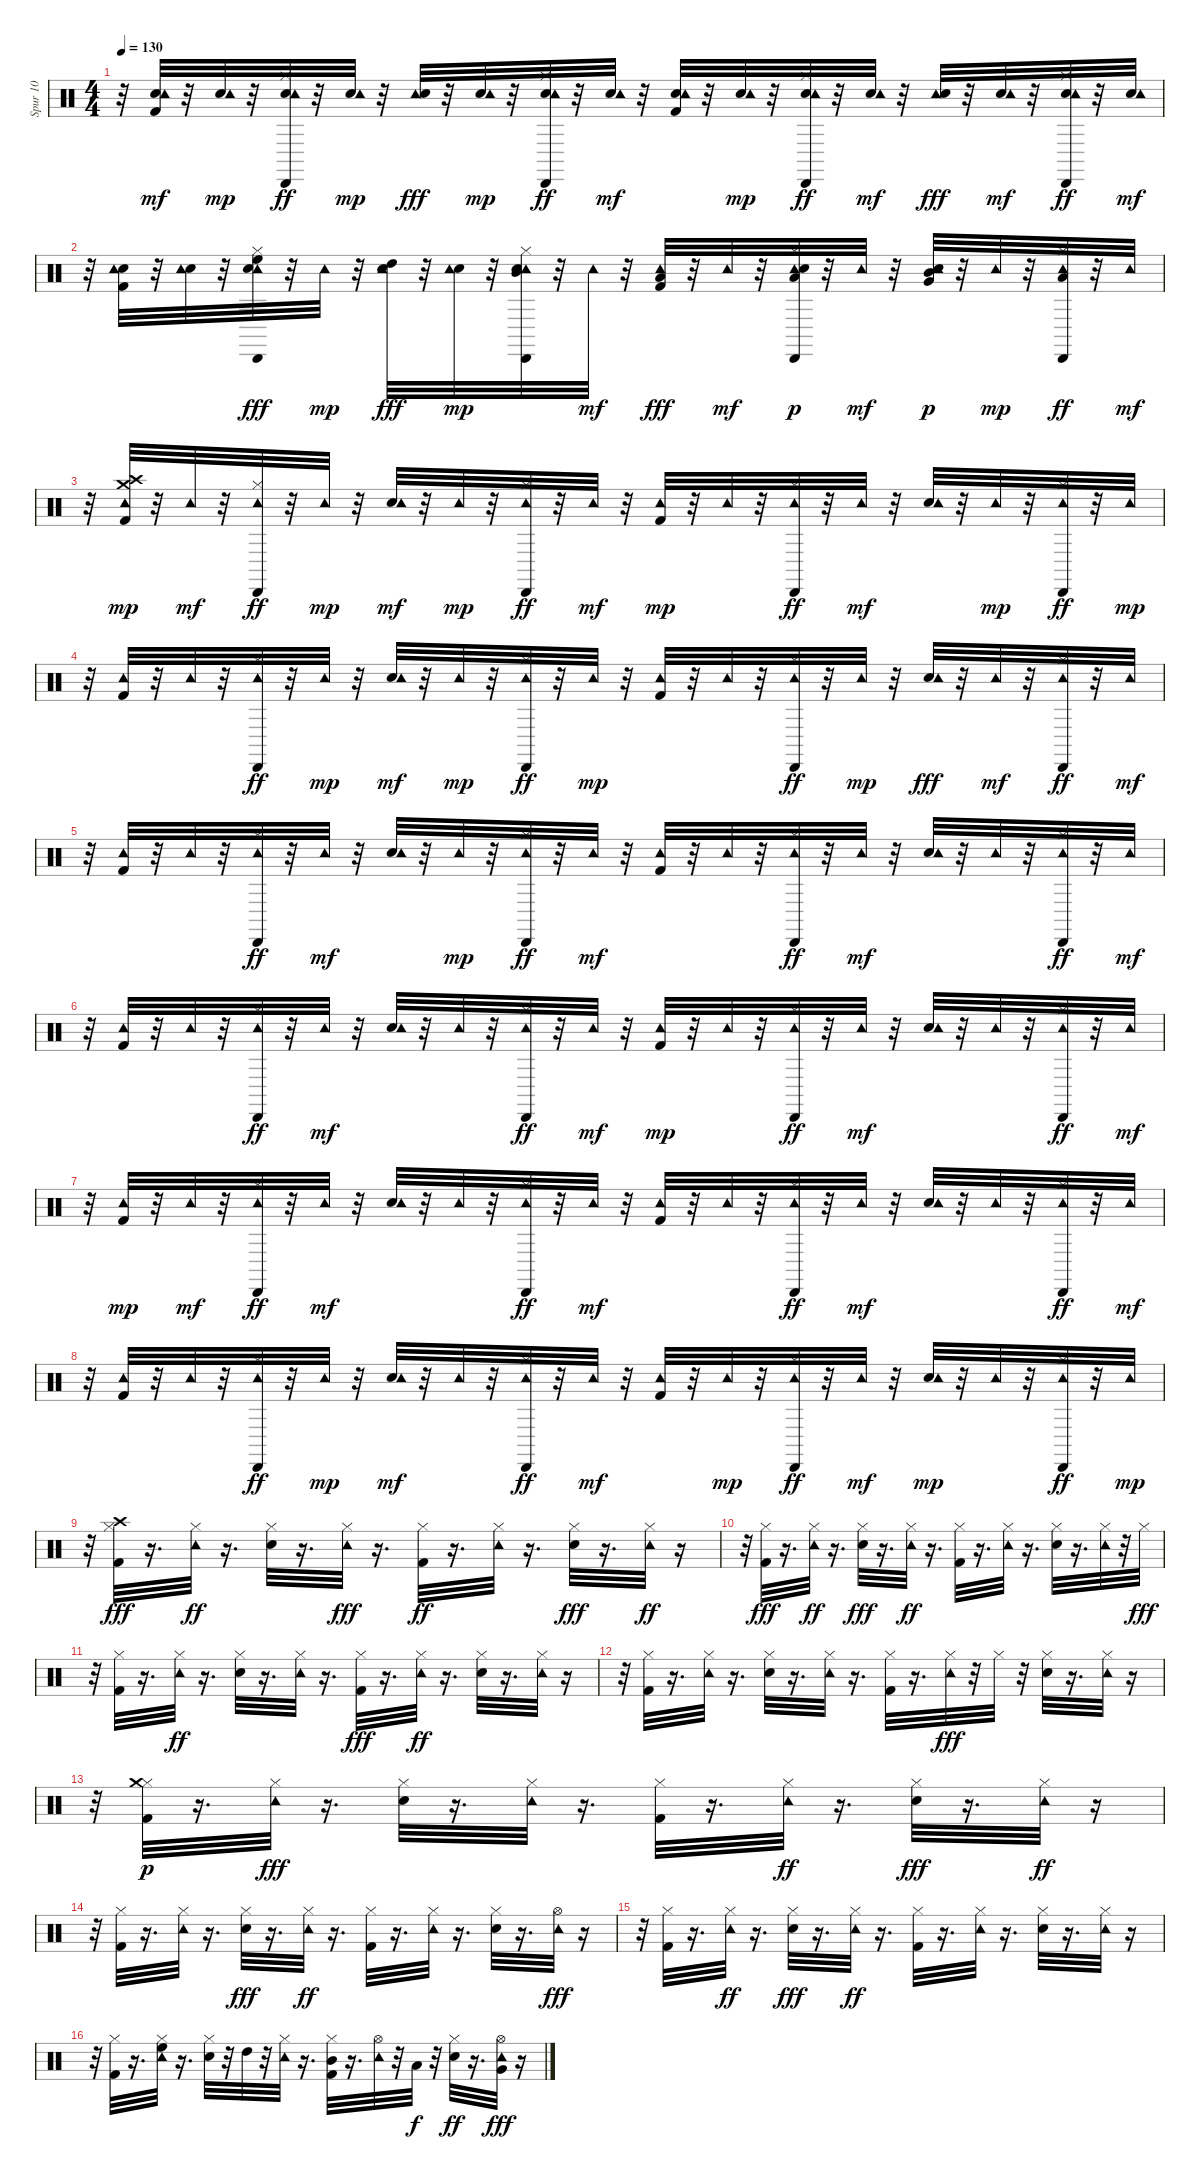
\track ("Spur 10" "Spur 10") {instrument percussion}
\staff {score}
\articulation defaults
\ts (4 4)
\tempo 130
\clef neutral
\ks c
r.32{dy mp} ("Kick (hit) 2" "Electric Snare (hit)" "Tambourine (hit)").32{dy mf} r.32 ("Electric Snare (hit)" "Tambourine (hit)").32{dy mp} r.32 ("Hi-Hat (closed)" "Electric Snare (hit)" "Tambourine (hit)" "Cabasa (hit)").32{dy ff} r.32 ("Electric Snare (hit)" "Tambourine (hit)").32{dy mp} r.32 ("Tambourine (hit)" "Electric Snare (hit)").32{dy fff} r.32 ("Electric Snare (hit)" "Tambourine (hit)").32{dy mp} r.32 ("Hi-Hat (closed)" "Electric Snare (hit)" "Tambourine (hit)" "Cabasa (hit)").32{dy ff} r.32 ("Electric Snare (hit)" "Tambourine (hit)").32{dy mf} r.32 ("Kick (hit) 2" "Electric Snare (hit)" "Tambourine (hit)").32 r.32 ("Electric Snare (hit)" "Tambourine (hit)").32{dy mp} r.32 ("Hi-Hat (closed)" "Electric Snare (hit)" "Tambourine (hit)" "Cabasa (hit)").32{dy ff} r.32 ("Electric Snare (hit)" "Tambourine (hit)").32{dy mf} r.32 ("Tambourine (hit)" "Electric Snare (hit)").32{dy fff} r.32 ("Electric Snare (hit)" "Tambourine (hit)").32{dy mf} r.32 ("Hi-Hat (closed)" "Electric Snare (hit)" "Tambourine (hit)" "Cabasa (hit)").32{dy ff} r.32 ("Electric Snare (hit)" "Tambourine (hit)").32{dy mf} |
r.32 ("Kick (hit) 2" "Electric Snare (hit)" "Tambourine (hit)").32 r.32 ("Electric Snare (hit)" "Tambourine (hit)").32 r.32 ("Hi-Hat (closed)" "Tambourine (hit)" "Electric Snare (hit)" "Cabasa (hit)" "High Floor Tom (hit)").32{dy fff} r.32 "Tambourine (hit)".32{dy mp} r.32 ("Tambourine (hit)" "Electric Snare (hit)" "High Tom (hit)").32{dy fff} r.32 ("Electric Snare (hit)" "Tambourine (hit)").32{dy mp} r.32 ("Hi-Hat (closed)" "Tambourine (hit)" "Electric Snare (hit)" "Cabasa (hit)" "Mid Tom (hit)").32 r.32 "Tambourine (hit)".32{dy mf} r.32 ("Kick (hit) 2" "Tambourine (hit)" "Low Tom (hit)").32{dy fff} r.32 "Tambourine (hit)".32{dy mf} r.32 ("Hi-Hat (closed)" "Tambourine (hit)" "Electric Snare (hit)" "Cabasa (hit)" "Low Tom (hit)").32{dy p} r.32 "Tambourine (hit)".32{dy mf} r.32 ("Electric Snare (hit)" "Tambourine (hit)" "Very Low Tom (hit)" "Mid Tom (hit)").32{dy p} r.32 "Tambourine (hit)".32{dy mp} r.32 ("Hi-Hat (closed)" "Tambourine (hit)" "Cabasa (hit)" "Low Floor Tom (hit)").32{dy ff} r.32 "Tambourine (hit)".32{dy mf} |
r.32 ("Kick (hit) 2" "Tambourine (hit)" "Crash high (hit)" "Crash medium (hit)").32{dy mp} r.32 "Tambourine (hit)".32{dy mf} r.32 ("Hi-Hat (closed)" "Tambourine (hit)" "Cabasa (hit)").32{dy ff} r.32 "Tambourine (hit)".32{dy mp} r.32 ("Electric Snare (hit)" "Tambourine (hit)").32{dy mf} r.32 "Tambourine (hit)".32{dy mp} r.32 ("Hi-Hat (closed)" "Tambourine (hit)" "Cabasa (hit)").32{dy ff} r.32 "Tambourine (hit)".32{dy mf} r.32 ("Kick (hit) 2" "Tambourine (hit)").32{dy mp} r.32 "Tambourine (hit)".32 r.32 ("Hi-Hat (closed)" "Tambourine (hit)" "Cabasa (hit)").32{dy ff} r.32 "Tambourine (hit)".32{dy mf} r.32 ("Electric Snare (hit)" "Tambourine (hit)").32 r.32 "Tambourine (hit)".32{dy mp} r.32 ("Hi-Hat (closed)" "Tambourine (hit)" "Cabasa (hit)").32{dy ff} r.32 "Tambourine (hit)".32{dy mp} |
r.32 ("Kick (hit) 2" "Tambourine (hit)").32 r.32 "Tambourine (hit)".32 r.32 ("Hi-Hat (closed)" "Tambourine (hit)" "Cabasa (hit)").32{dy ff} r.32 "Tambourine (hit)".32{dy mp} r.32 ("Electric Snare (hit)" "Tambourine (hit)").32{dy mf} r.32 "Tambourine (hit)".32{dy mp} r.32 ("Hi-Hat (closed)" "Tambourine (hit)" "Cabasa (hit)").32{dy ff} r.32 "Tambourine (hit)".32{dy mp} r.32 ("Kick (hit) 2" "Tambourine (hit)").32 r.32 "Tambourine (hit)".32 r.32 ("Hi-Hat (closed)" "Tambourine (hit)" "Cabasa (hit)").32{dy ff} r.32 "Tambourine (hit)".32{dy mp} r.32 ("Electric Snare (hit)" "Tambourine (hit)").32{dy fff} r.32 "Tambourine (hit)".32{dy mf} r.32 ("Hi-Hat (closed)" "Tambourine (hit)" "Cabasa (hit)").32{dy ff} r.32 "Tambourine (hit)".32{dy mf} |
r.32 ("Kick (hit) 2" "Tambourine (hit)").32 r.32 "Tambourine (hit)".32 r.32 ("Hi-Hat (closed)" "Tambourine (hit)" "Cabasa (hit)").32{dy ff} r.32 "Tambourine (hit)".32{dy mf} r.32 ("Electric Snare (hit)" "Tambourine (hit)").32 r.32 "Tambourine (hit)".32{dy mp} r.32 ("Hi-Hat (closed)" "Tambourine (hit)" "Cabasa (hit)").32{dy ff} r.32 "Tambourine (hit)".32{dy mf} r.32 ("Kick (hit) 2" "Tambourine (hit)").32 r.32 "Tambourine (hit)".32 r.32 ("Hi-Hat (closed)" "Tambourine (hit)" "Cabasa (hit)").32{dy ff} r.32 "Tambourine (hit)".32{dy mf} r.32 ("Electric Snare (hit)" "Tambourine (hit)").32 r.32 "Tambourine (hit)".32 r.32 ("Hi-Hat (closed)" "Tambourine (hit)" "Cabasa (hit)").32{dy ff} r.32 "Tambourine (hit)".32{dy mf} |
r.32 ("Kick (hit) 2" "Tambourine (hit)").32 r.32 "Tambourine (hit)".32 r.32 ("Hi-Hat (closed)" "Tambourine (hit)" "Cabasa (hit)").32{dy ff} r.32 "Tambourine (hit)".32{dy mf} r.32 ("Electric Snare (hit)" "Tambourine (hit)").32 r.32 "Tambourine (hit)".32 r.32 ("Hi-Hat (closed)" "Tambourine (hit)" "Cabasa (hit)").32{dy ff} r.32 "Tambourine (hit)".32{dy mf} r.32 ("Kick (hit) 2" "Tambourine (hit)").32{dy mp} r.32 "Tambourine (hit)".32 r.32 ("Hi-Hat (closed)" "Tambourine (hit)" "Cabasa (hit)").32{dy ff} r.32 "Tambourine (hit)".32{dy mf} r.32 ("Electric Snare (hit)" "Tambourine (hit)").32 r.32 "Tambourine (hit)".32 r.32 ("Hi-Hat (closed)" "Tambourine (hit)" "Cabasa (hit)").32{dy ff} r.32 "Tambourine (hit)".32{dy mf} |
r.32 ("Kick (hit) 2" "Tambourine (hit)").32{dy mp} r.32 "Tambourine (hit)".32{dy mf} r.32 ("Hi-Hat (closed)" "Tambourine (hit)" "Cabasa (hit)").32{dy ff} r.32 "Tambourine (hit)".32{dy mf} r.32 ("Electric Snare (hit)" "Tambourine (hit)").32 r.32 "Tambourine (hit)".32 r.32 ("Hi-Hat (closed)" "Tambourine (hit)" "Cabasa (hit)").32{dy ff} r.32 "Tambourine (hit)".32{dy mf} r.32 ("Kick (hit) 2" "Tambourine (hit)").32 r.32 "Tambourine (hit)".32 r.32 ("Hi-Hat (closed)" "Tambourine (hit)" "Cabasa (hit)").32{dy ff} r.32 "Tambourine (hit)".32{dy mf} r.32 ("Electric Snare (hit)" "Tambourine (hit)").32 r.32 "Tambourine (hit)".32 r.32 ("Hi-Hat (closed)" "Tambourine (hit)" "Cabasa (hit)").32{dy ff} r.32 "Tambourine (hit)".32{dy mf} |
r.32 ("Kick (hit) 2" "Tambourine (hit)").32 r.32 "Tambourine (hit)".32 r.32 ("Hi-Hat (closed)" "Tambourine (hit)" "Cabasa (hit)").32{dy ff} r.32 "Tambourine (hit)".32{dy mp} r.32 ("Electric Snare (hit)" "Tambourine (hit)").32{dy mf} r.32 "Tambourine (hit)".32 r.32 ("Hi-Hat (closed)" "Tambourine (hit)" "Cabasa (hit)").32{dy ff} r.32 "Tambourine (hit)".32{dy mf} r.32 ("Kick (hit) 2" "Tambourine (hit)").32 r.32 "Tambourine (hit)".32{dy mp} r.32 ("Hi-Hat (closed)" "Tambourine (hit)" "Cabasa (hit)").32{dy ff} r.32 "Tambourine (hit)".32{dy mf} r.32 ("Electric Snare (hit)" "Tambourine (hit)").32{dy mp} r.32 "Tambourine (hit)".32 r.32 ("Hi-Hat (closed)" "Tambourine (hit)" "Cabasa (hit)").32{dy ff} r.32 "Tambourine (hit)".32{dy mp} |
r.32 ("Hi-Hat (closed)" "Crash high (hit)" "Kick (hit) 2").32{dy fff} r.16{d} ("Tambourine (hit)" "Hi-Hat (closed)").32{dy ff} r.16{d} ("Electric Snare (hit)" "Hi-Hat (closed)").32 r.16{d} ("Tambourine (hit)" "Hi-Hat (closed)").32{dy fff} r.16{d} ("Kick (hit) 2" "Hi-Hat (closed)").32{dy ff} r.16{d} ("Tambourine (hit)" "Hi-Hat (closed)").32 r.16{d} ("Electric Snare (hit)" "Hi-Hat (closed)").32{dy fff} r.16{d} ("Tambourine (hit)" "Hi-Hat (closed)").32{dy ff} r.16 |
r.32 ("Kick (hit) 2" "Hi-Hat (closed)").32{dy fff} r.16{d} ("Tambourine (hit)" "Hi-Hat (closed)").32{dy ff} r.16{d} ("Electric Snare (hit)" "Hi-Hat (closed)").32{dy fff} r.16{d} ("Tambourine (hit)" "Hi-Hat (closed)").32{dy ff} r.16{d} ("Kick (hit) 2" "Hi-Hat (closed)").32 r.16{d} ("Tambourine (hit)" "Hi-Hat (closed)").32 r.16{d} ("Electric Snare (hit)" "Hi-Hat (closed)").32 r.16{d} ("Tambourine (hit)" "Hi-Hat (closed)").32 r.32 "Hi-Hat (closed)".32{dy fff} |
r.32 ("Kick (hit) 2" "Hi-Hat (closed)").32 r.16{d} ("Tambourine (hit)" "Hi-Hat (closed)").32{dy ff} r.16{d} ("Electric Snare (hit)" "Hi-Hat (closed)").32 r.16{d} ("Tambourine (hit)" "Hi-Hat (closed)").32 r.16{d} ("Kick (hit) 2" "Hi-Hat (closed)").32{dy fff} r.16{d} ("Tambourine (hit)" "Hi-Hat (closed)").32{dy ff} r.16{d} ("Electric Snare (hit)" "Hi-Hat (closed)").32 r.16{d} ("Tambourine (hit)" "Hi-Hat (closed)").32 r.16 |
r.32 ("Kick (hit) 2" "Hi-Hat (closed)").32 r.16{d} ("Tambourine (hit)" "Hi-Hat (closed)").32 r.16{d} ("Electric Snare (hit)" "Hi-Hat (closed)").32 r.16{d} ("Tambourine (hit)" "Hi-Hat (closed)").32 r.16{d} ("Kick (hit) 2" "Hi-Hat (closed)").32 r.16{d} ("Tambourine (hit)" "Hi-Hat (closed)").32{dy fff} r.32 "Hi-Hat (closed)".32 r.32 ("Electric Snare (hit)" "Hi-Hat (closed)").32 r.16{d} ("Tambourine (hit)" "Hi-Hat (closed)").32 r.16 |
r.32 ("Kick (hit) 2" "Hi-Hat (closed)" "Crash medium (hit)").32{dy p} r.16{d} ("Tambourine (hit)" "Hi-Hat (closed)").32{dy fff} r.16{d} ("Electric Snare (hit)" "Hi-Hat (closed)").32 r.16{d} ("Tambourine (hit)" "Hi-Hat (closed)").32 r.16{d} ("Kick (hit) 2" "Hi-Hat (closed)").32 r.16{d} ("Tambourine (hit)" "Hi-Hat (closed)").32{dy ff} r.16{d} ("Electric Snare (hit)" "Hi-Hat (closed)").32{dy fff} r.16{d} ("Tambourine (hit)" "Hi-Hat (closed)").32{dy ff} r.16 |
r.32 ("Kick (hit) 2" "Hi-Hat (closed)").32 r.16{d} ("Tambourine (hit)" "Hi-Hat (closed)").32 r.16{d} ("Electric Snare (hit)" "Hi-Hat (closed)").32{dy fff} r.16{d} ("Tambourine (hit)" "Hi-Hat (closed)").32{dy ff} r.16{d} ("Kick (hit) 2" "Hi-Hat (closed)").32 r.16{d} ("Tambourine (hit)" "Hi-Hat (closed)").32 r.16{d} ("Electric Snare (hit)" "Hi-Hat (closed)").32 r.16{d} ("Tambourine (hit)" "Hi-Hat (open)").32{dy fff} r.16 |
r.32 ("Kick (hit) 2" "Hi-Hat (closed)").32 r.16{d} ("Tambourine (hit)" "Hi-Hat (closed)").32{dy ff} r.16{d} ("Electric Snare (hit)" "Hi-Hat (closed)").32{dy fff} r.16{d} ("Tambourine (hit)" "Hi-Hat (closed)").32{dy ff} r.16{d} ("Kick (hit) 2" "Hi-Hat (closed)").32 r.16{d} ("Tambourine (hit)" "Hi-Hat (closed)").32 r.16{d} ("Electric Snare (hit)" "Hi-Hat (closed)").32 r.16{d} ("Tambourine (hit)" "Hi-Hat (closed)").32 r.16 |
r.32 ("Kick (hit) 2" "Hi-Hat (closed)").32 r.16{d} ("Tambourine (hit)" "Hi-Hat (closed)" "High Floor Tom (hit)").32 r.16{d} ("Electric Snare (hit)" "Hi-Hat (closed)").32 r.32 "High Tom (hit)".32 r.32 ("Tambourine (hit)" "Hi-Hat (closed)").32 r.16{d} ("Kick (hit) 2" "Hi-Hat (closed)" "Mid Tom (hit)").32 r.16{d} ("Tambourine (hit)" "Hi-Hat (open)").32 r.32 "Low Tom (hit)".32{dy f} r.32 ("Electric Snare (hit)" "Hi-Hat (closed)").32{dy ff} r.16{d} ("Tambourine (hit)" "Hi-Hat (open)" "Very Low Tom (hit)").32{dy fff} r.16
